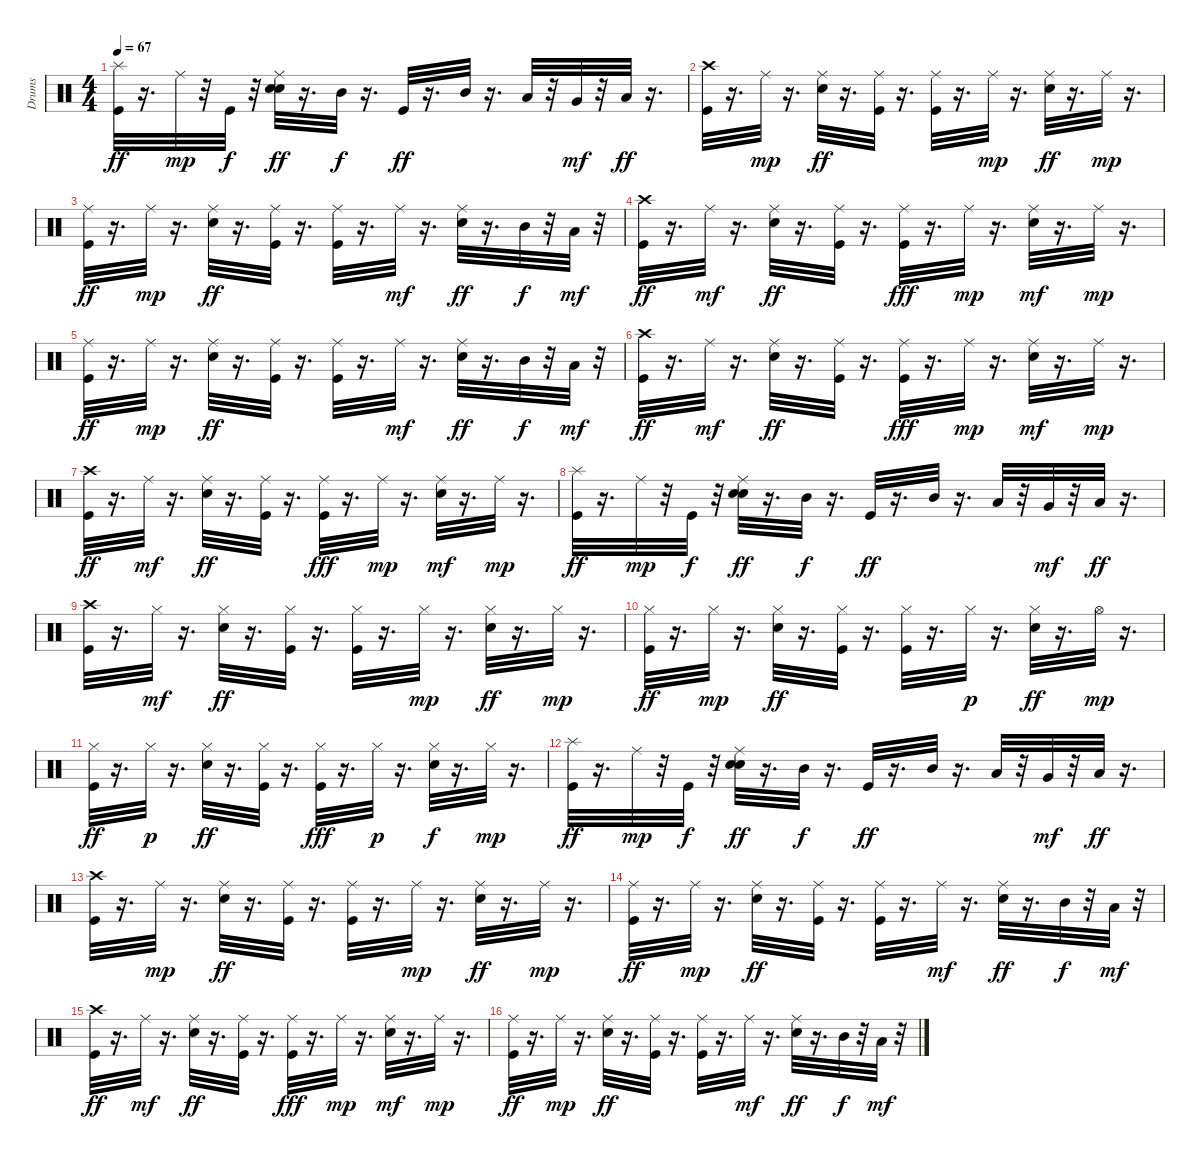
\track ("Drums" "Drums") {instrument percussion}
\staff {score}
\articulation defaults
\ts (4 4)
\tempo 67
\clef neutral
\ks c
("Splash (hit)" "Kick (hit)").32{dy ff} r.16{d} "Ride (middle)".32{dy mp} r.32 "Kick (hit)".32{dy f} r.32 ("Snare (hit) 2" "Ride (middle)" "Electric Snare (hit)").32{dy ff} r.16{d} "Mid Tom (hit)".32{dy f} r.16{d} "Kick (hit)".32{dy ff} r.16{d} "Mid Tom (hit)".32 r.16{d} "Low Tom (hit)".32 r.32 "Very Low Tom (hit)".32{dy mf} r.32 "Low Floor Tom (hit)".32{dy ff} r.16{d} |
("Crash high (hit)" "Kick (hit)").32 r.16{d} "Ride (middle)".32{dy mp} r.16{d} ("Ride (middle)" "Electric Snare (hit)").32{dy ff} r.16{d} ("Ride (middle)" "Kick (hit)").32 r.16{d} ("Ride (middle)" "Kick (hit)").32 r.16{d} "Ride (middle)".32{dy mp} r.16{d} ("Ride (middle)" "Electric Snare (hit)").32{dy ff} r.16{d} "Ride (middle)".32{dy mp} r.16{d} |
("Ride (middle)" "Kick (hit)").32{dy ff} r.16{d} "Ride (middle)".32{dy mp} r.16{d} ("Ride (middle)" "Electric Snare (hit)").32{dy ff} r.16{d} ("Ride (middle)" "Kick (hit)").32 r.16{d} ("Ride (middle)" "Kick (hit)").32 r.16{d} "Ride (middle)".32{dy mf} r.16{d} ("Ride (middle)" "Electric Snare (hit)").32{dy ff} r.16{d} "Mid Tom (hit)".32{dy f} r.32 "Low Tom (hit)".32{dy mf} r.32 |
("Crash high (hit)" "Kick (hit)").32{dy ff} r.16{d} "Ride (middle)".32{dy mf} r.16{d} ("Ride (middle)" "Electric Snare (hit)").32{dy ff} r.16{d} ("Ride (middle)" "Kick (hit)").32 r.16{d} ("Ride (middle)" "Kick (hit)").32{dy fff} r.16{d} "Ride (middle)".32{dy mp} r.16{d} ("Ride (middle)" "Electric Snare (hit)").32{dy mf} r.16{d} "Ride (middle)".32{dy mp} r.16{d} |
("Ride (middle)" "Kick (hit)").32{dy ff} r.16{d} "Ride (middle)".32{dy mp} r.16{d} ("Ride (middle)" "Electric Snare (hit)").32{dy ff} r.16{d} ("Ride (middle)" "Kick (hit)").32 r.16{d} ("Ride (middle)" "Kick (hit)").32 r.16{d} "Ride (middle)".32{dy mf} r.16{d} ("Ride (middle)" "Electric Snare (hit)").32{dy ff} r.16{d} "Mid Tom (hit)".32{dy f} r.32 "Low Tom (hit)".32{dy mf} r.32 |
("Crash high (hit)" "Kick (hit)").32{dy ff} r.16{d} "Ride (middle)".32{dy mf} r.16{d} ("Ride (middle)" "Electric Snare (hit)").32{dy ff} r.16{d} ("Ride (middle)" "Kick (hit)").32 r.16{d} ("Ride (middle)" "Kick (hit)").32{dy fff} r.16{d} "Ride (middle)".32{dy mp} r.16{d} ("Ride (middle)" "Electric Snare (hit)").32{dy mf} r.16{d} "Ride (middle)".32{dy mp} r.16{d} |
("Crash high (hit)" "Kick (hit)").32{dy ff} r.16{d} "Ride (middle)".32{dy mf} r.16{d} ("Ride (middle)" "Electric Snare (hit)").32{dy ff} r.16{d} ("Ride (middle)" "Kick (hit)").32 r.16{d} ("Ride (middle)" "Kick (hit)").32{dy fff} r.16{d} "Ride (middle)".32{dy mp} r.16{d} ("Ride (middle)" "Electric Snare (hit)").32{dy mf} r.16{d} "Ride (middle)".32{dy mp} r.16{d} |
("Splash (hit)" "Kick (hit)").32{dy ff} r.16{d} "Ride (middle)".32{dy mp} r.32 "Kick (hit)".32{dy f} r.32 ("Snare (hit) 2" "Ride (middle)" "Electric Snare (hit)").32{dy ff} r.16{d} "Mid Tom (hit)".32{dy f} r.16{d} "Kick (hit)".32{dy ff} r.16{d} "Mid Tom (hit)".32 r.16{d} "Low Tom (hit)".32 r.32 "Very Low Tom (hit)".32{dy mf} r.32 "Low Floor Tom (hit)".32{dy ff} r.16{d} |
("Crash high (hit)" "Kick (hit)").32 r.16{d} "Hi-Hat (closed)".32{dy mf} r.16{d} ("Hi-Hat (closed)" "Electric Snare (hit)").32{dy ff} r.16{d} ("Hi-Hat (closed)" "Kick (hit)").32 r.16{d} ("Hi-Hat (closed)" "Kick (hit)").32 r.16{d} "Hi-Hat (closed)".32{dy mp} r.16{d} ("Hi-Hat (closed)" "Electric Snare (hit)").32{dy ff} r.16{d} "Hi-Hat (closed)".32{dy mp} r.16{d} |
("Hi-Hat (closed)" "Kick (hit)").32{dy ff} r.16{d} "Hi-Hat (closed)".32{dy mp} r.16{d} ("Hi-Hat (closed)" "Electric Snare (hit)").32{dy ff} r.16{d} ("Hi-Hat (closed)" "Kick (hit)").32 r.16{d} ("Hi-Hat (closed)" "Kick (hit)").32 r.16{d} "Hi-Hat (closed)".32{dy p} r.16{d} ("Hi-Hat (closed)" "Electric Snare (hit)").32{dy ff} r.16{d} "Hi-Hat (open)".32{dy mp} r.16{d} |
("Hi-Hat (closed)" "Kick (hit)").32{dy ff} r.16{d} "Hi-Hat (closed)".32{dy p} r.16{d} ("Hi-Hat (closed)" "Electric Snare (hit)").32{dy ff} r.16{d} ("Hi-Hat (closed)" "Kick (hit)").32 r.16{d} ("Hi-Hat (closed)" "Kick (hit)").32{dy fff} r.16{d} "Hi-Hat (closed)".32{dy p} r.16{d} ("Hi-Hat (closed)" "Electric Snare (hit)").32{dy f} r.16{d} "Hi-Hat (closed)".32{dy mp} r.16{d} |
("Splash (hit)" "Kick (hit)").32{dy ff} r.16{d} "Ride (middle)".32{dy mp} r.32 "Kick (hit)".32{dy f} r.32 ("Snare (hit) 2" "Ride (middle)" "Electric Snare (hit)").32{dy ff} r.16{d} "Mid Tom (hit)".32{dy f} r.16{d} "Kick (hit)".32{dy ff} r.16{d} "Mid Tom (hit)".32 r.16{d} "Low Tom (hit)".32 r.32 "Very Low Tom (hit)".32{dy mf} r.32 "Low Floor Tom (hit)".32{dy ff} r.16{d} |
("Crash high (hit)" "Kick (hit)").32 r.16{d} "Ride (middle)".32{dy mp} r.16{d} ("Ride (middle)" "Electric Snare (hit)").32{dy ff} r.16{d} ("Ride (middle)" "Kick (hit)").32 r.16{d} ("Ride (middle)" "Kick (hit)").32 r.16{d} "Ride (middle)".32{dy mp} r.16{d} ("Ride (middle)" "Electric Snare (hit)").32{dy ff} r.16{d} "Ride (middle)".32{dy mp} r.16{d} |
("Ride (middle)" "Kick (hit)").32{dy ff} r.16{d} "Ride (middle)".32{dy mp} r.16{d} ("Ride (middle)" "Electric Snare (hit)").32{dy ff} r.16{d} ("Ride (middle)" "Kick (hit)").32 r.16{d} ("Ride (middle)" "Kick (hit)").32 r.16{d} "Ride (middle)".32{dy mf} r.16{d} ("Ride (middle)" "Electric Snare (hit)").32{dy ff} r.16{d} "Mid Tom (hit)".32{dy f} r.32 "Low Tom (hit)".32{dy mf} r.32 |
("Crash high (hit)" "Kick (hit)").32{dy ff} r.16{d} "Ride (middle)".32{dy mf} r.16{d} ("Ride (middle)" "Electric Snare (hit)").32{dy ff} r.16{d} ("Ride (middle)" "Kick (hit)").32 r.16{d} ("Ride (middle)" "Kick (hit)").32{dy fff} r.16{d} "Ride (middle)".32{dy mp} r.16{d} ("Ride (middle)" "Electric Snare (hit)").32{dy mf} r.16{d} "Ride (middle)".32{dy mp} r.16{d} |
("Ride (middle)" "Kick (hit)").32{dy ff} r.16{d} "Ride (middle)".32{dy mp} r.16{d} ("Ride (middle)" "Electric Snare (hit)").32{dy ff} r.16{d} ("Ride (middle)" "Kick (hit)").32 r.16{d} ("Ride (middle)" "Kick (hit)").32 r.16{d} "Ride (middle)".32{dy mf} r.16{d} ("Ride (middle)" "Electric Snare (hit)").32{dy ff} r.16{d} "Mid Tom (hit)".32{dy f} r.32 "Low Tom (hit)".32{dy mf} r.32
